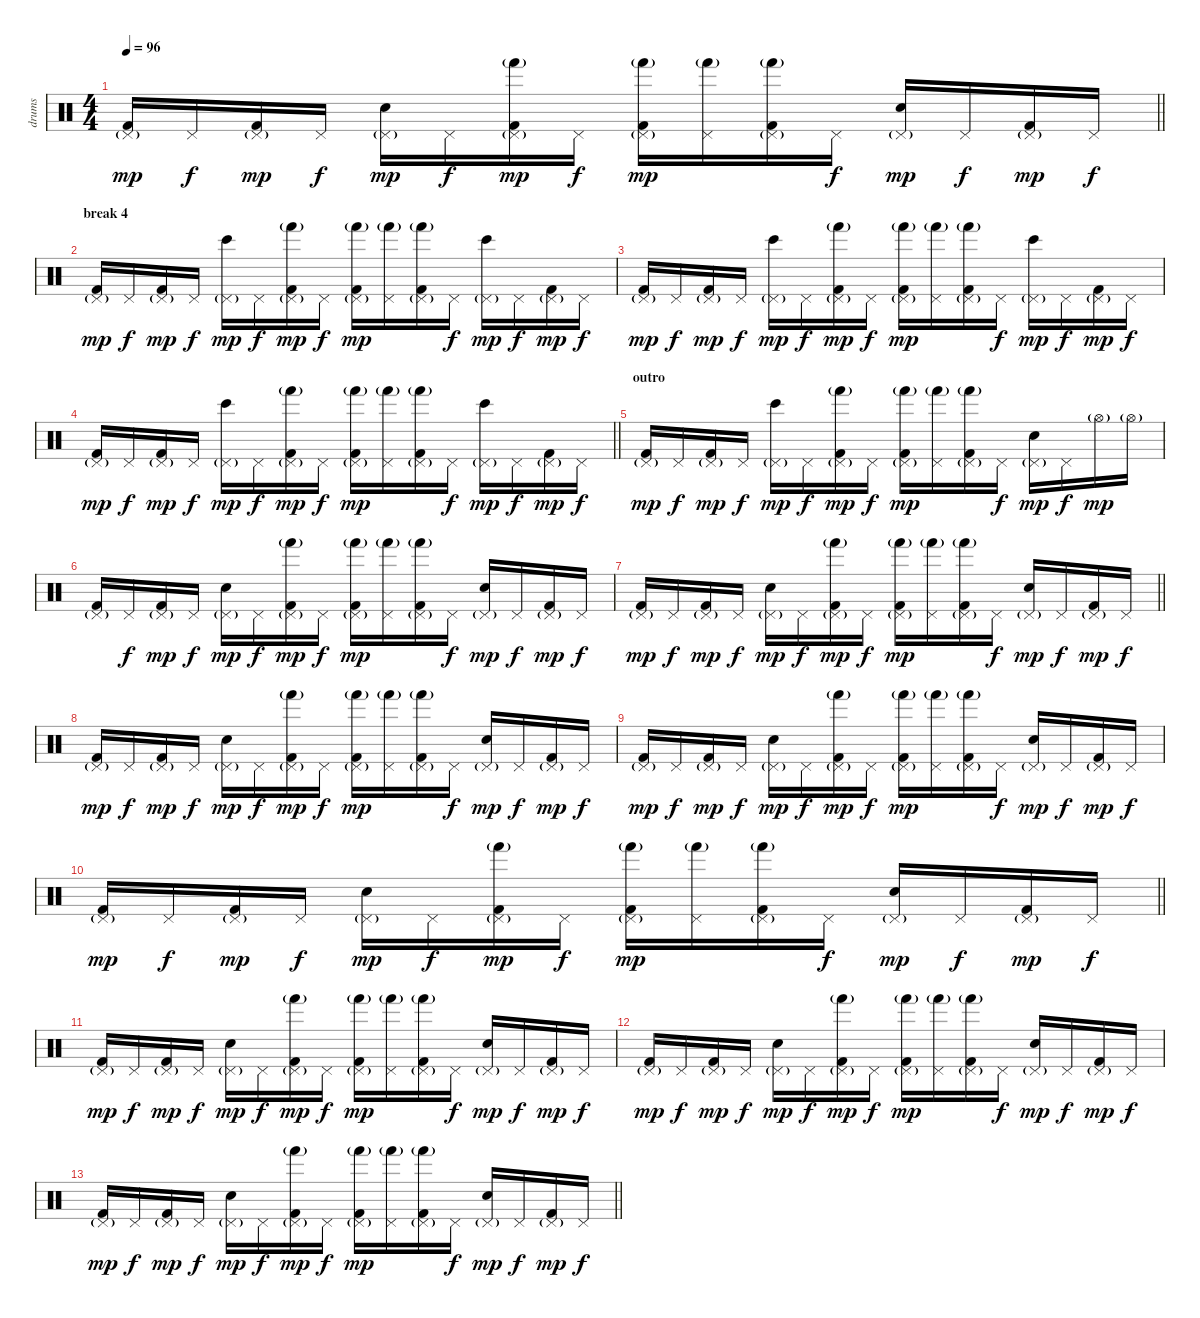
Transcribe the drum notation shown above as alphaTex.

\track ("drums" "drums") {instrument percussion}
\staff {score}
\articulation defaults
\ts (4 4)
\tempo 96
\clef neutral
\barLineRight lightlight
\ks c
("Kick (hit) 2" "Pedal Hi-Hat (hit)"{g}).16{dy mp} "Pedal Hi-Hat (hit)".16{dy f} ("Kick (hit) 2" "Pedal Hi-Hat (hit)"{g}).16{dy mp} "Pedal Hi-Hat (hit)".16{dy f} ("Snare (hit) 2" "Pedal Hi-Hat (hit)"{g}).16{dy mp} "Pedal Hi-Hat (hit)".16{dy f} ("Kick (hit) 2" "Hand (hit)"{g} "Pedal Hi-Hat (hit)"{g}).16{dy mp} "Pedal Hi-Hat (hit)".16{dy f} ("Kick (hit) 2" "Hand (hit)"{g} "Pedal Hi-Hat (hit)"{g}).16{dy mp} ("Hand (hit)"{g} "Pedal Hi-Hat (hit)").16 ("Kick (hit) 2" "Hand (hit)"{g} "Pedal Hi-Hat (hit)"{g}).16 "Pedal Hi-Hat (hit)".16{dy f} ("Snare (hit) 2" "Pedal Hi-Hat (hit)"{g}).16{dy mp} "Pedal Hi-Hat (hit)".16{dy f} ("Kick (hit) 2" "Pedal Hi-Hat (hit)"{g}).16{dy mp} "Pedal Hi-Hat (hit)".16{dy f} |
\section ("" "break 4")
("Kick (hit) 2" "Pedal Hi-Hat (hit)"{g}).16{dy mp} "Pedal Hi-Hat (hit)".16{dy f} ("Kick (hit) 2" "Pedal Hi-Hat (hit)"{g}).16{dy mp} "Pedal Hi-Hat (hit)".16{dy f} ("Bongo High (hit)" "Pedal Hi-Hat (hit)"{g}).16{dy mp} "Pedal Hi-Hat (hit)".16{dy f} ("Kick (hit) 2" "Hand (hit)"{g} "Pedal Hi-Hat (hit)"{g}).16{dy mp} "Pedal Hi-Hat (hit)".16{dy f} ("Kick (hit) 2" "Hand (hit)"{g} "Pedal Hi-Hat (hit)"{g}).16{dy mp} ("Hand (hit)"{g} "Pedal Hi-Hat (hit)").16 ("Kick (hit) 2" "Hand (hit)"{g} "Pedal Hi-Hat (hit)"{g}).16 "Pedal Hi-Hat (hit)".16{dy f} ("Bongo High (hit)" "Pedal Hi-Hat (hit)"{g}).16{dy mp} "Pedal Hi-Hat (hit)".16{dy f} ("Kick (hit) 2" "Pedal Hi-Hat (hit)"{g}).16{dy mp} "Pedal Hi-Hat (hit)".16{dy f} |
("Kick (hit) 2" "Pedal Hi-Hat (hit)"{g}).16{dy mp} "Pedal Hi-Hat (hit)".16{dy f} ("Kick (hit) 2" "Pedal Hi-Hat (hit)"{g}).16{dy mp} "Pedal Hi-Hat (hit)".16{dy f} ("Bongo High (hit)" "Pedal Hi-Hat (hit)"{g}).16{dy mp} "Pedal Hi-Hat (hit)".16{dy f} ("Kick (hit) 2" "Hand (hit)"{g} "Pedal Hi-Hat (hit)"{g}).16{dy mp} "Pedal Hi-Hat (hit)".16{dy f} ("Kick (hit) 2" "Hand (hit)"{g} "Pedal Hi-Hat (hit)"{g}).16{dy mp} ("Hand (hit)"{g} "Pedal Hi-Hat (hit)").16 ("Kick (hit) 2" "Hand (hit)"{g} "Pedal Hi-Hat (hit)"{g}).16 "Pedal Hi-Hat (hit)".16{dy f} ("Bongo High (hit)" "Pedal Hi-Hat (hit)"{g}).16{dy mp} "Pedal Hi-Hat (hit)".16{dy f} ("Kick (hit) 2" "Pedal Hi-Hat (hit)"{g}).16{dy mp} "Pedal Hi-Hat (hit)".16{dy f} |
\barLineRight lightlight
("Kick (hit) 2" "Pedal Hi-Hat (hit)"{g}).16{dy mp} "Pedal Hi-Hat (hit)".16{dy f} ("Kick (hit) 2" "Pedal Hi-Hat (hit)"{g}).16{dy mp} "Pedal Hi-Hat (hit)".16{dy f} ("Bongo High (hit)" "Pedal Hi-Hat (hit)"{g}).16{dy mp} "Pedal Hi-Hat (hit)".16{dy f} ("Kick (hit) 2" "Hand (hit)"{g} "Pedal Hi-Hat (hit)"{g}).16{dy mp} "Pedal Hi-Hat (hit)".16{dy f} ("Kick (hit) 2" "Hand (hit)"{g} "Pedal Hi-Hat (hit)"{g}).16{dy mp} ("Hand (hit)"{g} "Pedal Hi-Hat (hit)").16 ("Kick (hit) 2" "Hand (hit)"{g} "Pedal Hi-Hat (hit)"{g}).16 "Pedal Hi-Hat (hit)".16{dy f} ("Bongo High (hit)" "Pedal Hi-Hat (hit)"{g}).16{dy mp} "Pedal Hi-Hat (hit)".16{dy f} ("Kick (hit) 2" "Pedal Hi-Hat (hit)"{g}).16{dy mp} "Pedal Hi-Hat (hit)".16{dy f} |
\section ("" "outro")
("Kick (hit) 2" "Pedal Hi-Hat (hit)"{g}).16{dy mp} "Pedal Hi-Hat (hit)".16{dy f} ("Kick (hit) 2" "Pedal Hi-Hat (hit)"{g}).16{dy mp} "Pedal Hi-Hat (hit)".16{dy f} ("Bongo High (hit)" "Pedal Hi-Hat (hit)"{g}).16{dy mp} "Pedal Hi-Hat (hit)".16{dy f} ("Kick (hit) 2" "Hand (hit)"{g} "Pedal Hi-Hat (hit)"{g}).16{dy mp} "Pedal Hi-Hat (hit)".16{dy f} ("Kick (hit) 2" "Hand (hit)"{g} "Pedal Hi-Hat (hit)"{g}).16{dy mp} ("Hand (hit)"{g} "Pedal Hi-Hat (hit)").16 ("Kick (hit) 2" "Hand (hit)"{g} "Pedal Hi-Hat (hit)"{g}).16 "Pedal Hi-Hat (hit)".16{dy f} ("Snare (hit) 2" "Pedal Hi-Hat (hit)"{g}).16{dy mp} "Pedal Hi-Hat (hit)".16{dy f} "Hi-Hat (open)"{g}.16{dy mp} "Hi-Hat (open)"{g}.16 |
("Kick (hit) 2" "Pedal Hi-Hat (hit)"{g}).16 "Pedal Hi-Hat (hit)".16{dy f} ("Kick (hit) 2" "Pedal Hi-Hat (hit)"{g}).16{dy mp} "Pedal Hi-Hat (hit)".16{dy f} ("Snare (hit) 2" "Pedal Hi-Hat (hit)"{g}).16{dy mp} "Pedal Hi-Hat (hit)".16{dy f} ("Kick (hit) 2" "Hand (hit)"{g} "Pedal Hi-Hat (hit)"{g}).16{dy mp} "Pedal Hi-Hat (hit)".16{dy f} ("Kick (hit) 2" "Hand (hit)"{g} "Pedal Hi-Hat (hit)"{g}).16{dy mp} ("Hand (hit)"{g} "Pedal Hi-Hat (hit)").16 ("Kick (hit) 2" "Hand (hit)"{g} "Pedal Hi-Hat (hit)"{g}).16 "Pedal Hi-Hat (hit)".16{dy f} ("Snare (hit) 2" "Pedal Hi-Hat (hit)"{g}).16{dy mp} "Pedal Hi-Hat (hit)".16{dy f} ("Kick (hit) 2" "Pedal Hi-Hat (hit)"{g}).16{dy mp} "Pedal Hi-Hat (hit)".16{dy f} |
\barLineRight lightlight
("Kick (hit) 2" "Pedal Hi-Hat (hit)"{g}).16{dy mp} "Pedal Hi-Hat (hit)".16{dy f} ("Kick (hit) 2" "Pedal Hi-Hat (hit)"{g}).16{dy mp} "Pedal Hi-Hat (hit)".16{dy f} ("Snare (hit) 2" "Pedal Hi-Hat (hit)"{g}).16{dy mp} "Pedal Hi-Hat (hit)".16{dy f} ("Kick (hit) 2" "Hand (hit)"{g} "Pedal Hi-Hat (hit)"{g}).16{dy mp} "Pedal Hi-Hat (hit)".16{dy f} ("Kick (hit) 2" "Hand (hit)"{g} "Pedal Hi-Hat (hit)"{g}).16{dy mp} ("Hand (hit)"{g} "Pedal Hi-Hat (hit)").16 ("Kick (hit) 2" "Hand (hit)"{g} "Pedal Hi-Hat (hit)"{g}).16 "Pedal Hi-Hat (hit)".16{dy f} ("Snare (hit) 2" "Pedal Hi-Hat (hit)"{g}).16{dy mp} "Pedal Hi-Hat (hit)".16{dy f} ("Kick (hit) 2" "Pedal Hi-Hat (hit)"{g}).16{dy mp} "Pedal Hi-Hat (hit)".16{dy f} |
("Kick (hit) 2" "Pedal Hi-Hat (hit)"{g}).16{dy mp} "Pedal Hi-Hat (hit)".16{dy f} ("Kick (hit) 2" "Pedal Hi-Hat (hit)"{g}).16{dy mp} "Pedal Hi-Hat (hit)".16{dy f} ("Snare (hit) 2" "Pedal Hi-Hat (hit)"{g}).16{dy mp} "Pedal Hi-Hat (hit)".16{dy f} ("Kick (hit) 2" "Hand (hit)"{g} "Pedal Hi-Hat (hit)"{g}).16{dy mp} "Pedal Hi-Hat (hit)".16{dy f} ("Kick (hit) 2" "Hand (hit)"{g} "Pedal Hi-Hat (hit)"{g}).16{dy mp} ("Hand (hit)"{g} "Pedal Hi-Hat (hit)").16 ("Kick (hit) 2" "Hand (hit)"{g} "Pedal Hi-Hat (hit)"{g}).16 "Pedal Hi-Hat (hit)".16{dy f} ("Snare (hit) 2" "Pedal Hi-Hat (hit)"{g}).16{dy mp} "Pedal Hi-Hat (hit)".16{dy f} ("Kick (hit) 2" "Pedal Hi-Hat (hit)"{g}).16{dy mp} "Pedal Hi-Hat (hit)".16{dy f} |
("Kick (hit) 2" "Pedal Hi-Hat (hit)"{g}).16{dy mp} "Pedal Hi-Hat (hit)".16{dy f} ("Kick (hit) 2" "Pedal Hi-Hat (hit)"{g}).16{dy mp} "Pedal Hi-Hat (hit)".16{dy f} ("Snare (hit) 2" "Pedal Hi-Hat (hit)"{g}).16{dy mp} "Pedal Hi-Hat (hit)".16{dy f} ("Kick (hit) 2" "Hand (hit)"{g} "Pedal Hi-Hat (hit)"{g}).16{dy mp} "Pedal Hi-Hat (hit)".16{dy f} ("Kick (hit) 2" "Hand (hit)"{g} "Pedal Hi-Hat (hit)"{g}).16{dy mp} ("Hand (hit)"{g} "Pedal Hi-Hat (hit)").16 ("Kick (hit) 2" "Hand (hit)"{g} "Pedal Hi-Hat (hit)"{g}).16 "Pedal Hi-Hat (hit)".16{dy f} ("Snare (hit) 2" "Pedal Hi-Hat (hit)"{g}).16{dy mp} "Pedal Hi-Hat (hit)".16{dy f} ("Kick (hit) 2" "Pedal Hi-Hat (hit)"{g}).16{dy mp} "Pedal Hi-Hat (hit)".16{dy f} |
\barLineRight lightlight
("Kick (hit) 2" "Pedal Hi-Hat (hit)"{g}).16{dy mp} "Pedal Hi-Hat (hit)".16{dy f} ("Kick (hit) 2" "Pedal Hi-Hat (hit)"{g}).16{dy mp} "Pedal Hi-Hat (hit)".16{dy f} ("Snare (hit) 2" "Pedal Hi-Hat (hit)"{g}).16{dy mp} "Pedal Hi-Hat (hit)".16{dy f} ("Kick (hit) 2" "Hand (hit)"{g} "Pedal Hi-Hat (hit)"{g}).16{dy mp} "Pedal Hi-Hat (hit)".16{dy f} ("Kick (hit) 2" "Hand (hit)"{g} "Pedal Hi-Hat (hit)"{g}).16{dy mp} ("Hand (hit)"{g} "Pedal Hi-Hat (hit)").16 ("Kick (hit) 2" "Hand (hit)"{g} "Pedal Hi-Hat (hit)"{g}).16 "Pedal Hi-Hat (hit)".16{dy f} ("Snare (hit) 2" "Pedal Hi-Hat (hit)"{g}).16{dy mp} "Pedal Hi-Hat (hit)".16{dy f} ("Kick (hit) 2" "Pedal Hi-Hat (hit)"{g}).16{dy mp} "Pedal Hi-Hat (hit)".16{dy f} |
("Kick (hit) 2" "Pedal Hi-Hat (hit)"{g}).16{dy mp} "Pedal Hi-Hat (hit)".16{dy f} ("Kick (hit) 2" "Pedal Hi-Hat (hit)"{g}).16{dy mp} "Pedal Hi-Hat (hit)".16{dy f} ("Snare (hit) 2" "Pedal Hi-Hat (hit)"{g}).16{dy mp} "Pedal Hi-Hat (hit)".16{dy f} ("Kick (hit) 2" "Hand (hit)"{g} "Pedal Hi-Hat (hit)"{g}).16{dy mp} "Pedal Hi-Hat (hit)".16{dy f} ("Kick (hit) 2" "Hand (hit)"{g} "Pedal Hi-Hat (hit)"{g}).16{dy mp} ("Hand (hit)"{g} "Pedal Hi-Hat (hit)").16 ("Kick (hit) 2" "Hand (hit)"{g} "Pedal Hi-Hat (hit)"{g}).16 "Pedal Hi-Hat (hit)".16{dy f} ("Snare (hit) 2" "Pedal Hi-Hat (hit)"{g}).16{dy mp} "Pedal Hi-Hat (hit)".16{dy f} ("Kick (hit) 2" "Pedal Hi-Hat (hit)"{g}).16{dy mp} "Pedal Hi-Hat (hit)".16{dy f} |
("Kick (hit) 2" "Pedal Hi-Hat (hit)"{g}).16{dy mp} "Pedal Hi-Hat (hit)".16{dy f} ("Kick (hit) 2" "Pedal Hi-Hat (hit)"{g}).16{dy mp} "Pedal Hi-Hat (hit)".16{dy f} ("Snare (hit) 2" "Pedal Hi-Hat (hit)"{g}).16{dy mp} "Pedal Hi-Hat (hit)".16{dy f} ("Kick (hit) 2" "Hand (hit)"{g} "Pedal Hi-Hat (hit)"{g}).16{dy mp} "Pedal Hi-Hat (hit)".16{dy f} ("Kick (hit) 2" "Hand (hit)"{g} "Pedal Hi-Hat (hit)"{g}).16{dy mp} ("Hand (hit)"{g} "Pedal Hi-Hat (hit)").16 ("Kick (hit) 2" "Hand (hit)"{g} "Pedal Hi-Hat (hit)"{g}).16 "Pedal Hi-Hat (hit)".16{dy f} ("Snare (hit) 2" "Pedal Hi-Hat (hit)"{g}).16{dy mp} "Pedal Hi-Hat (hit)".16{dy f} ("Kick (hit) 2" "Pedal Hi-Hat (hit)"{g}).16{dy mp} "Pedal Hi-Hat (hit)".16{dy f} |
\barLineRight lightlight
("Kick (hit) 2" "Pedal Hi-Hat (hit)"{g}).16{dy mp} "Pedal Hi-Hat (hit)".16{dy f} ("Kick (hit) 2" "Pedal Hi-Hat (hit)"{g}).16{dy mp} "Pedal Hi-Hat (hit)".16{dy f} ("Snare (hit) 2" "Pedal Hi-Hat (hit)"{g}).16{dy mp} "Pedal Hi-Hat (hit)".16{dy f} ("Kick (hit) 2" "Hand (hit)"{g} "Pedal Hi-Hat (hit)"{g}).16{dy mp} "Pedal Hi-Hat (hit)".16{dy f} ("Kick (hit) 2" "Hand (hit)"{g} "Pedal Hi-Hat (hit)"{g}).16{dy mp} ("Hand (hit)"{g} "Pedal Hi-Hat (hit)").16 ("Kick (hit) 2" "Hand (hit)"{g} "Pedal Hi-Hat (hit)"{g}).16 "Pedal Hi-Hat (hit)".16{dy f} ("Snare (hit) 2" "Pedal Hi-Hat (hit)"{g}).16{dy mp} "Pedal Hi-Hat (hit)".16{dy f} ("Kick (hit) 2" "Pedal Hi-Hat (hit)"{g}).16{dy mp} "Pedal Hi-Hat (hit)".16{dy f}
